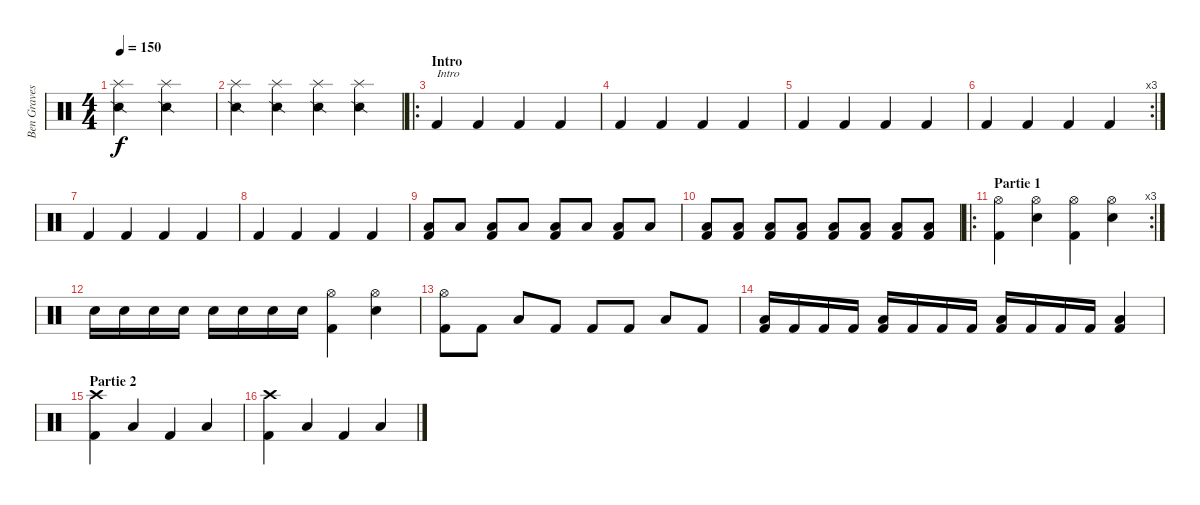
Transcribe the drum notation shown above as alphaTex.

\track ("Ben Graves" "Ben Graves") {instrument percussion}
\staff {score}
\articulation defaults
\ts (4 4)
\tempo 150
\clef neutral
\ks c
("Splash (hit)" "Snare (side stick) 2").2{dy f} ("Splash (hit)" "Snare (side stick) 2").2 |
("Splash (hit)" "Snare (side stick) 2").4 ("Splash (hit)" "Snare (side stick) 2").4 ("Splash (hit)" "Snare (side stick) 2").4 ("Splash (hit)" "Snare (side stick) 2").4 |
\ro
\section ("" "Intro")
"Kick (hit) 2".4{txt "Intro"} "Kick (hit) 2".4 "Kick (hit) 2".4 "Kick (hit) 2".4 |
"Kick (hit) 2".4 "Kick (hit) 2".4 "Kick (hit) 2".4 "Kick (hit) 2".4 |
"Kick (hit) 2".4 "Kick (hit) 2".4 "Kick (hit) 2".4 "Kick (hit) 2".4 |
\rc 3 "Kick (hit) 2".4 "Kick (hit) 2".4 "Kick (hit) 2".4 "Kick (hit) 2".4
|
"Kick (hit) 2".4 "Kick (hit) 2".4 "Kick (hit) 2".4 "Kick (hit) 2".4 |
"Kick (hit) 2".4 "Kick (hit) 2".4 "Kick (hit) 2".4 "Kick (hit) 2".4 |
("Low Floor Tom (hit)" "Kick (hit) 2").8 "Low Floor Tom (hit)".8 ("Low Floor Tom (hit)" "Kick (hit) 2").8 "Low Floor Tom (hit)".8 ("Low Floor Tom (hit)" "Kick (hit) 2").8 "Low Floor Tom (hit)".8 ("Low Floor Tom (hit)" "Kick (hit) 2").8 "Low Floor Tom (hit)".8 |
("Low Floor Tom (hit)" "Kick (hit) 2").8 ("Low Floor Tom (hit)" "Kick (hit) 2").8 ("Low Floor Tom (hit)" "Kick (hit) 2").8 ("Low Floor Tom (hit)" "Kick (hit) 2").8 ("Low Floor Tom (hit)" "Kick (hit) 2").8 ("Low Floor Tom (hit)" "Kick (hit) 2").8 ("Low Floor Tom (hit)" "Kick (hit) 2").8 ("Low Floor Tom (hit)" "Kick (hit) 2").8 |
\ro
\rc 3
\section ("" "Partie 1")
("Hi-Hat (open)" "Kick (hit) 2").4 ("Hi-Hat (open)" "Snare (hit) 2").4 ("Hi-Hat (open)" "Kick (hit) 2").4 ("Hi-Hat (open)" "Snare (hit) 2").4 |
"Snare (hit) 2".16 "Snare (hit) 2".16 "Snare (hit) 2".16 "Snare (hit) 2".16 "Snare (hit) 2".16 "Snare (hit) 2".16 "Snare (hit) 2".16 "Snare (hit) 2".16 ("Hi-Hat (open)" "Kick (hit) 2").4 ("Hi-Hat (open)" "Snare (hit) 2").4 |
("Hi-Hat (open)" "Kick (hit) 2").8 "Kick (hit) 2".8 "Low Floor Tom (hit)".8 "Kick (hit) 2".8 "Kick (hit) 2".8 "Kick (hit) 2".8 "Low Floor Tom (hit)".8 "Kick (hit) 2".8 |
("Low Floor Tom (hit)" "Kick (hit) 2").16 "Kick (hit) 2".16 "Kick (hit) 2".16 "Kick (hit) 2".16 ("Low Floor Tom (hit)" "Kick (hit) 2").16 "Kick (hit) 2".16 "Kick (hit) 2".16 "Kick (hit) 2".16 ("Low Floor Tom (hit)" "Kick (hit) 2").16 "Kick (hit) 2".16 "Kick (hit) 2".16 "Kick (hit) 2".16 ("Low Floor Tom (hit)" "Kick (hit) 2").4 |
\section ("" "Partie 2")
("Crash high (hit)" "Kick (hit) 2").4 "Low Floor Tom (hit)".4 "Kick (hit) 2".4 "Low Floor Tom (hit)".4 |
("Crash high (hit)" "Kick (hit) 2").4 "Low Floor Tom (hit)".4 "Kick (hit) 2".4 "Low Floor Tom (hit)".4
